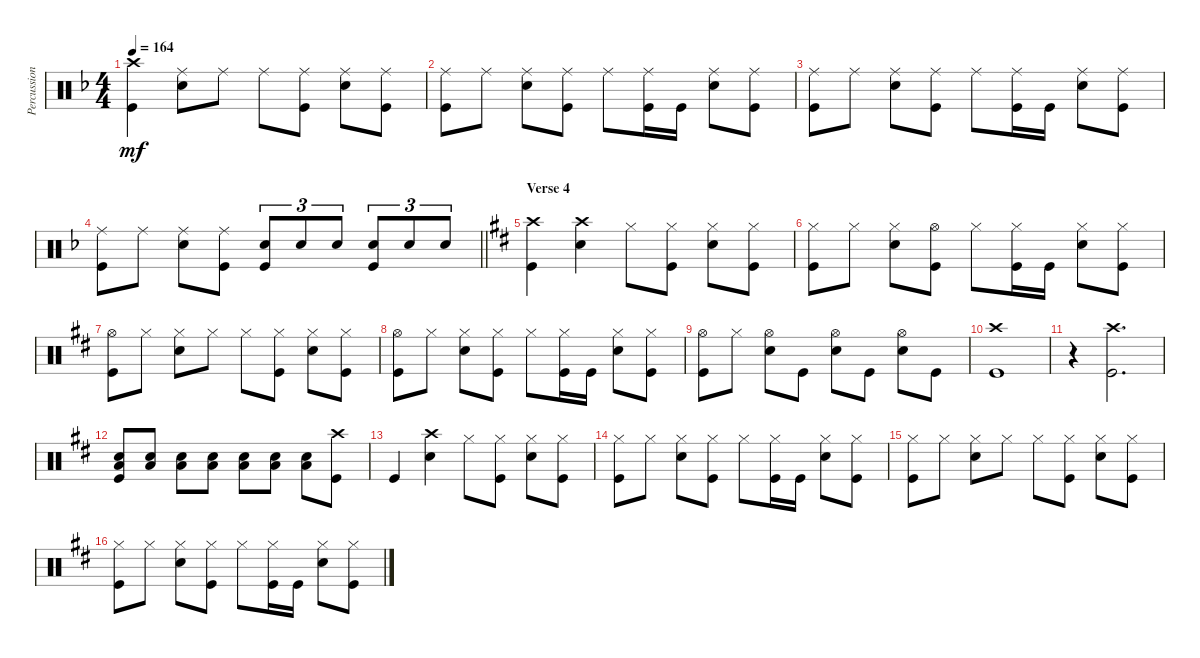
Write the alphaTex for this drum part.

\track ("Percussions" "Percussion") {instrument percussion}
\staff {score}
\articulation defaults
\ts (4 4)
\tempo 164
\clef neutral
\ks dminor
("Crash high (hit)" "Kick (hit)").4{dy mf} ("Ride (middle)" "Electric Snare (hit)").8 "Ride (middle)".8 "Ride (middle)".8 ("Ride (middle)" "Kick (hit)").8 ("Ride (middle)" "Electric Snare (hit)").8 ("Ride (middle)" "Kick (hit)").8 |
("Ride (middle)" "Kick (hit)").8 "Ride (middle)".8 ("Ride (middle)" "Electric Snare (hit)").8 ("Ride (middle)" "Kick (hit)").8 "Ride (middle)".8 ("Ride (middle)" "Kick (hit)").16 "Kick (hit)".16 ("Ride (middle)" "Electric Snare (hit)").8 ("Ride (middle)" "Kick (hit)").8 |
("Ride (middle)" "Kick (hit)").8 "Ride (middle)".8 ("Ride (middle)" "Electric Snare (hit)").8 ("Ride (middle)" "Kick (hit)").8 "Ride (middle)".8 ("Ride (middle)" "Kick (hit)").16 "Kick (hit)".16 ("Ride (middle)" "Electric Snare (hit)").8 ("Ride (middle)" "Kick (hit)").8 |
\barLineRight lightlight
("Ride (middle)" "Kick (hit)").8 "Ride (middle)".8 ("Ride (middle)" "Electric Snare (hit)").8 ("Ride (middle)" "Kick (hit)").8 ("Electric Snare (hit)" "Kick (hit)").8{tu (3 2)} "Electric Snare (hit)".8{tu (3 2)} "Electric Snare (hit)".8{tu (3 2)} ("Electric Snare (hit)" "Kick (hit)").8{tu (3 2)} "Electric Snare (hit)".8{tu (3 2)} "Electric Snare (hit)".8{tu (3 2)} |
\section ("" "Verse 4")
\ks bminor
("Crash high (hit)" "Kick (hit)").4 ("Crash high (hit)" "Electric Snare (hit)").4 "Hi-Hat (closed)".8 ("Hi-Hat (closed)" "Kick (hit)").8 ("Hi-Hat (closed)" "Electric Snare (hit)").8 ("Hi-Hat (closed)" "Kick (hit)").8 |
("Hi-Hat (closed)" "Kick (hit)").8 "Hi-Hat (closed)".8 ("Hi-Hat (closed)" "Electric Snare (hit)").8 ("Hi-Hat (open)" "Kick (hit)").8 "Hi-Hat (closed)".8 ("Hi-Hat (closed)" "Kick (hit)").16 "Kick (hit)".16 ("Hi-Hat (closed)" "Electric Snare (hit)").8 ("Hi-Hat (closed)" "Kick (hit)").8 |
("Hi-Hat (open)" "Kick (hit)").8 "Hi-Hat (closed)".8 ("Hi-Hat (closed)" "Electric Snare (hit)").8 "Hi-Hat (closed)".8 "Hi-Hat (closed)".8 ("Hi-Hat (closed)" "Kick (hit)").8 ("Hi-Hat (closed)" "Electric Snare (hit)").8 ("Hi-Hat (closed)" "Kick (hit)").8 |
("Hi-Hat (open)" "Kick (hit)").8 "Hi-Hat (closed)".8 ("Hi-Hat (closed)" "Electric Snare (hit)").8 ("Hi-Hat (closed)" "Kick (hit)").8 "Hi-Hat (closed)".8 ("Hi-Hat (closed)" "Kick (hit)").16 "Kick (hit)".16 ("Hi-Hat (closed)" "Electric Snare (hit)").8 ("Hi-Hat (closed)" "Kick (hit)").8 |
("Hi-Hat (open)" "Kick (hit)").8 "Hi-Hat (closed)".8 ("Hi-Hat (open)" "Electric Snare (hit)").8 "Kick (hit)".8 ("Hi-Hat (open)" "Electric Snare (hit)").8 "Kick (hit)".8 ("Hi-Hat (open)" "Electric Snare (hit)").8 "Kick (hit)".8 |
("Crash high (hit)" "Kick (hit)").1 |
r.4 ("Crash high (hit)" "Kick (hit)").2{d} |
("Low Floor Tom (hit)" "Electric Snare (hit)" "Kick (hit)").8 ("Low Floor Tom (hit)" "Electric Snare (hit)").8 ("Low Floor Tom (hit)" "Electric Snare (hit)").8 ("Low Floor Tom (hit)" "Electric Snare (hit)").8 ("Low Floor Tom (hit)" "Electric Snare (hit)").8 ("Low Floor Tom (hit)" "Electric Snare (hit)").8 ("Low Floor Tom (hit)" "Electric Snare (hit)").8 ("Crash high (hit)" "Kick (hit)").8 |
"Kick (hit)".4 ("Crash high (hit)" "Electric Snare (hit)").4 "Hi-Hat (closed)".8 ("Hi-Hat (closed)" "Kick (hit)").8 ("Hi-Hat (closed)" "Electric Snare (hit)").8 ("Hi-Hat (closed)" "Kick (hit)").8 |
("Hi-Hat (closed)" "Kick (hit)").8 "Hi-Hat (closed)".8 ("Hi-Hat (closed)" "Electric Snare (hit)").8 ("Hi-Hat (closed)" "Kick (hit)").8 "Hi-Hat (closed)".8 ("Hi-Hat (closed)" "Kick (hit)").16 "Kick (hit)".16 ("Hi-Hat (closed)" "Electric Snare (hit)").8 ("Hi-Hat (closed)" "Kick (hit)").8 |
("Hi-Hat (closed)" "Kick (hit)").8 "Hi-Hat (closed)".8 ("Hi-Hat (closed)" "Electric Snare (hit)").8 "Hi-Hat (closed)".8 "Hi-Hat (closed)".8 ("Hi-Hat (closed)" "Kick (hit)").8 ("Hi-Hat (closed)" "Electric Snare (hit)").8 ("Hi-Hat (closed)" "Kick (hit)").8 |
("Hi-Hat (closed)" "Kick (hit)").8 "Hi-Hat (closed)".8 ("Hi-Hat (closed)" "Electric Snare (hit)").8 ("Hi-Hat (closed)" "Kick (hit)").8 "Hi-Hat (closed)".8 ("Hi-Hat (closed)" "Kick (hit)").16 "Kick (hit)".16 ("Hi-Hat (closed)" "Electric Snare (hit)").8 ("Hi-Hat (closed)" "Kick (hit)").8
